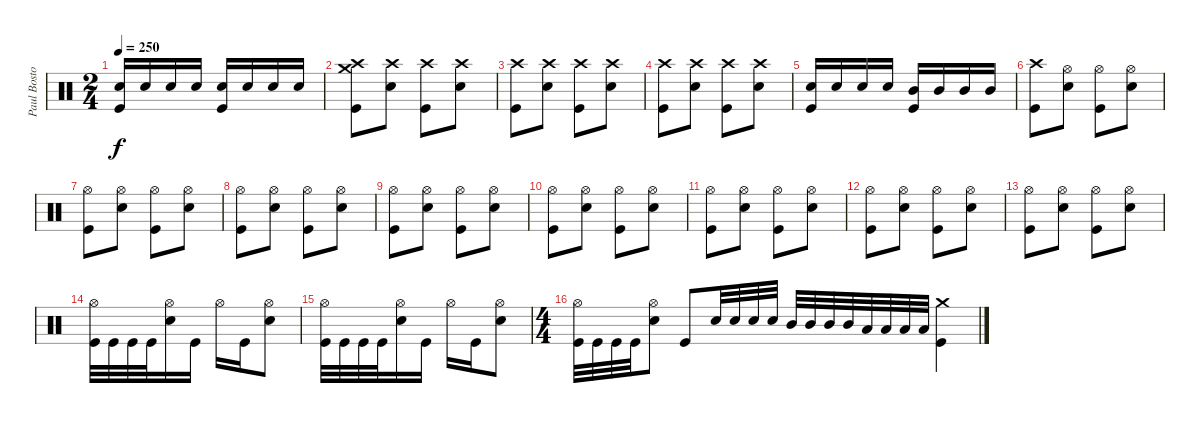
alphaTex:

\track ("Paul Bostoph" "Paul Bosto") {instrument percussion}
\staff {score}
\articulation defaults
\ts (2 4)
\tempo 250
\clef neutral
\ks c
("Snare (hit) 2" "Kick (hit)").16{dy f} "Snare (hit) 2".16 "Snare (hit) 2".16 "Snare (hit) 2".16 ("Snare (hit) 2" "Kick (hit)").16 "Snare (hit) 2".16 "Snare (hit) 2".16 "Snare (hit) 2".16 |
("Crash medium (hit)" "Crash high (hit)" "Kick (hit)").8 ("Crash high (hit)" "Snare (hit) 2").8 ("Crash high (hit)" "Kick (hit)").8 ("Crash high (hit)" "Snare (hit) 2").8 |
("Crash high (hit)" "Kick (hit)").8 ("Crash high (hit)" "Snare (hit) 2").8 ("Crash high (hit)" "Kick (hit)").8 ("Crash high (hit)" "Snare (hit) 2").8 |
("Crash high (hit)" "Kick (hit)").8 ("Crash high (hit)" "Snare (hit) 2").8 ("Crash high (hit)" "Kick (hit)").8 ("Crash high (hit)" "Snare (hit) 2").8 |
("Snare (hit) 2" "Kick (hit)").16 "Snare (hit) 2".16 "Snare (hit) 2".16 "Snare (hit) 2".16 ("Mid Tom (hit)" "Kick (hit)").16 "Mid Tom (hit)".16 "Mid Tom (hit)".16 "Mid Tom (hit)".16 |
("Crash high (hit)" "Kick (hit)").8 ("Hi-Hat (open)" "Snare (hit) 2").8 ("Hi-Hat (open)" "Kick (hit)").8 ("Hi-Hat (open)" "Snare (hit) 2").8 |
("Hi-Hat (open)" "Kick (hit)").8 ("Hi-Hat (open)" "Snare (hit) 2").8 ("Hi-Hat (open)" "Kick (hit)").8 ("Hi-Hat (open)" "Snare (hit) 2").8 |
("Hi-Hat (open)" "Kick (hit)").8 ("Hi-Hat (open)" "Snare (hit) 2").8 ("Hi-Hat (open)" "Kick (hit)").8 ("Hi-Hat (open)" "Snare (hit) 2").8 |
("Hi-Hat (open)" "Kick (hit)").8 ("Hi-Hat (open)" "Snare (hit) 2").8 ("Hi-Hat (open)" "Kick (hit)").8 ("Hi-Hat (open)" "Snare (hit) 2").8 |
("Hi-Hat (open)" "Kick (hit)").8 ("Hi-Hat (open)" "Snare (hit) 2").8 ("Hi-Hat (open)" "Kick (hit)").8 ("Hi-Hat (open)" "Snare (hit) 2").8 |
("Hi-Hat (open)" "Kick (hit)").8 ("Hi-Hat (open)" "Snare (hit) 2").8 ("Hi-Hat (open)" "Kick (hit)").8 ("Hi-Hat (open)" "Snare (hit) 2").8 |
("Hi-Hat (open)" "Kick (hit)").8 ("Hi-Hat (open)" "Snare (hit) 2").8 ("Hi-Hat (open)" "Kick (hit)").8 ("Hi-Hat (open)" "Snare (hit) 2").8 |
("Hi-Hat (open)" "Kick (hit)").8 ("Hi-Hat (open)" "Snare (hit) 2").8 ("Hi-Hat (open)" "Kick (hit)").8 ("Hi-Hat (open)" "Snare (hit) 2").8 |
("Hi-Hat (open)" "Kick (hit)").32 "Kick (hit)".32 "Kick (hit)".32 "Kick (hit)".32 ("Hi-Hat (open)" "Snare (hit) 2").16 "Kick (hit)".16 "Hi-Hat (open)".16 "Kick (hit)".16 ("Hi-Hat (open)" "Snare (hit) 2").8 |
("Hi-Hat (open)" "Kick (hit)").32 "Kick (hit)".32 "Kick (hit)".32 "Kick (hit)".32 ("Hi-Hat (open)" "Snare (hit) 2").16 "Kick (hit)".16 "Hi-Hat (open)".16 "Kick (hit)".16 ("Hi-Hat (open)" "Snare (hit) 2").8 |
\ts (4 4)
("Hi-Hat (open)" "Kick (hit)").32 "Kick (hit)".32 "Kick (hit)".32 "Kick (hit)".32 ("Hi-Hat (open)" "Snare (hit) 2").8 "Kick (hit)".8 "Snare (hit) 2".32 "Snare (hit) 2".32 "Snare (hit) 2".32 "Snare (hit) 2".32 "Mid Tom (hit)".32 "Mid Tom (hit)".32 "Mid Tom (hit)".32 "Mid Tom (hit)".32 "Low Tom (hit)".32 "Low Tom (hit)".32 "Low Tom (hit)".32 "Low Tom (hit)".32 ("Crash medium (hit)" "Kick (hit)").4
